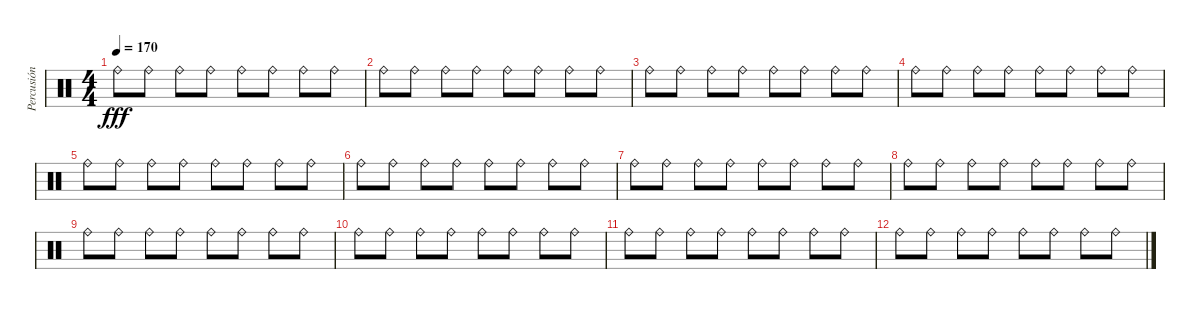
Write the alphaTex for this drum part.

\track ("Percusión" "Percusión") {instrument percussion}
\staff {score}
\articulation defaults
\ts (4 4)
\tempo 170
\clef neutral
\ks c "Ride (bell)".8{dy fff} "Ride (bell)".8 "Ride (bell)".8 "Ride (bell)".8 "Ride (bell)".8 "Ride (bell)".8 "Ride (bell)".8 "Ride (bell)".8
|
"Ride (bell)".8 "Ride (bell)".8 "Ride (bell)".8 "Ride (bell)".8 "Ride (bell)".8 "Ride (bell)".8 "Ride (bell)".8 "Ride (bell)".8 |
"Ride (bell)".8 "Ride (bell)".8 "Ride (bell)".8 "Ride (bell)".8 "Ride (bell)".8 "Ride (bell)".8 "Ride (bell)".8 "Ride (bell)".8 |
"Ride (bell)".8 "Ride (bell)".8 "Ride (bell)".8 "Ride (bell)".8 "Ride (bell)".8 "Ride (bell)".8 "Ride (bell)".8 "Ride (bell)".8 |
"Ride (bell)".8 "Ride (bell)".8 "Ride (bell)".8 "Ride (bell)".8 "Ride (bell)".8 "Ride (bell)".8 "Ride (bell)".8 "Ride (bell)".8 |
"Ride (bell)".8 "Ride (bell)".8 "Ride (bell)".8 "Ride (bell)".8 "Ride (bell)".8 "Ride (bell)".8 "Ride (bell)".8 "Ride (bell)".8 |
"Ride (bell)".8 "Ride (bell)".8 "Ride (bell)".8 "Ride (bell)".8 "Ride (bell)".8 "Ride (bell)".8 "Ride (bell)".8 "Ride (bell)".8 |
"Ride (bell)".8 "Ride (bell)".8 "Ride (bell)".8 "Ride (bell)".8 "Ride (bell)".8 "Ride (bell)".8 "Ride (bell)".8 "Ride (bell)".8 |
"Ride (bell)".8 "Ride (bell)".8 "Ride (bell)".8 "Ride (bell)".8 "Ride (bell)".8 "Ride (bell)".8 "Ride (bell)".8 "Ride (bell)".8 |
"Ride (bell)".8 "Ride (bell)".8 "Ride (bell)".8 "Ride (bell)".8 "Ride (bell)".8 "Ride (bell)".8 "Ride (bell)".8 "Ride (bell)".8 |
"Ride (bell)".8 "Ride (bell)".8 "Ride (bell)".8 "Ride (bell)".8 "Ride (bell)".8 "Ride (bell)".8 "Ride (bell)".8 "Ride (bell)".8 |
"Ride (bell)".8 "Ride (bell)".8 "Ride (bell)".8 "Ride (bell)".8 "Ride (bell)".8 "Ride (bell)".8 "Ride (bell)".8 "Ride (bell)".8
